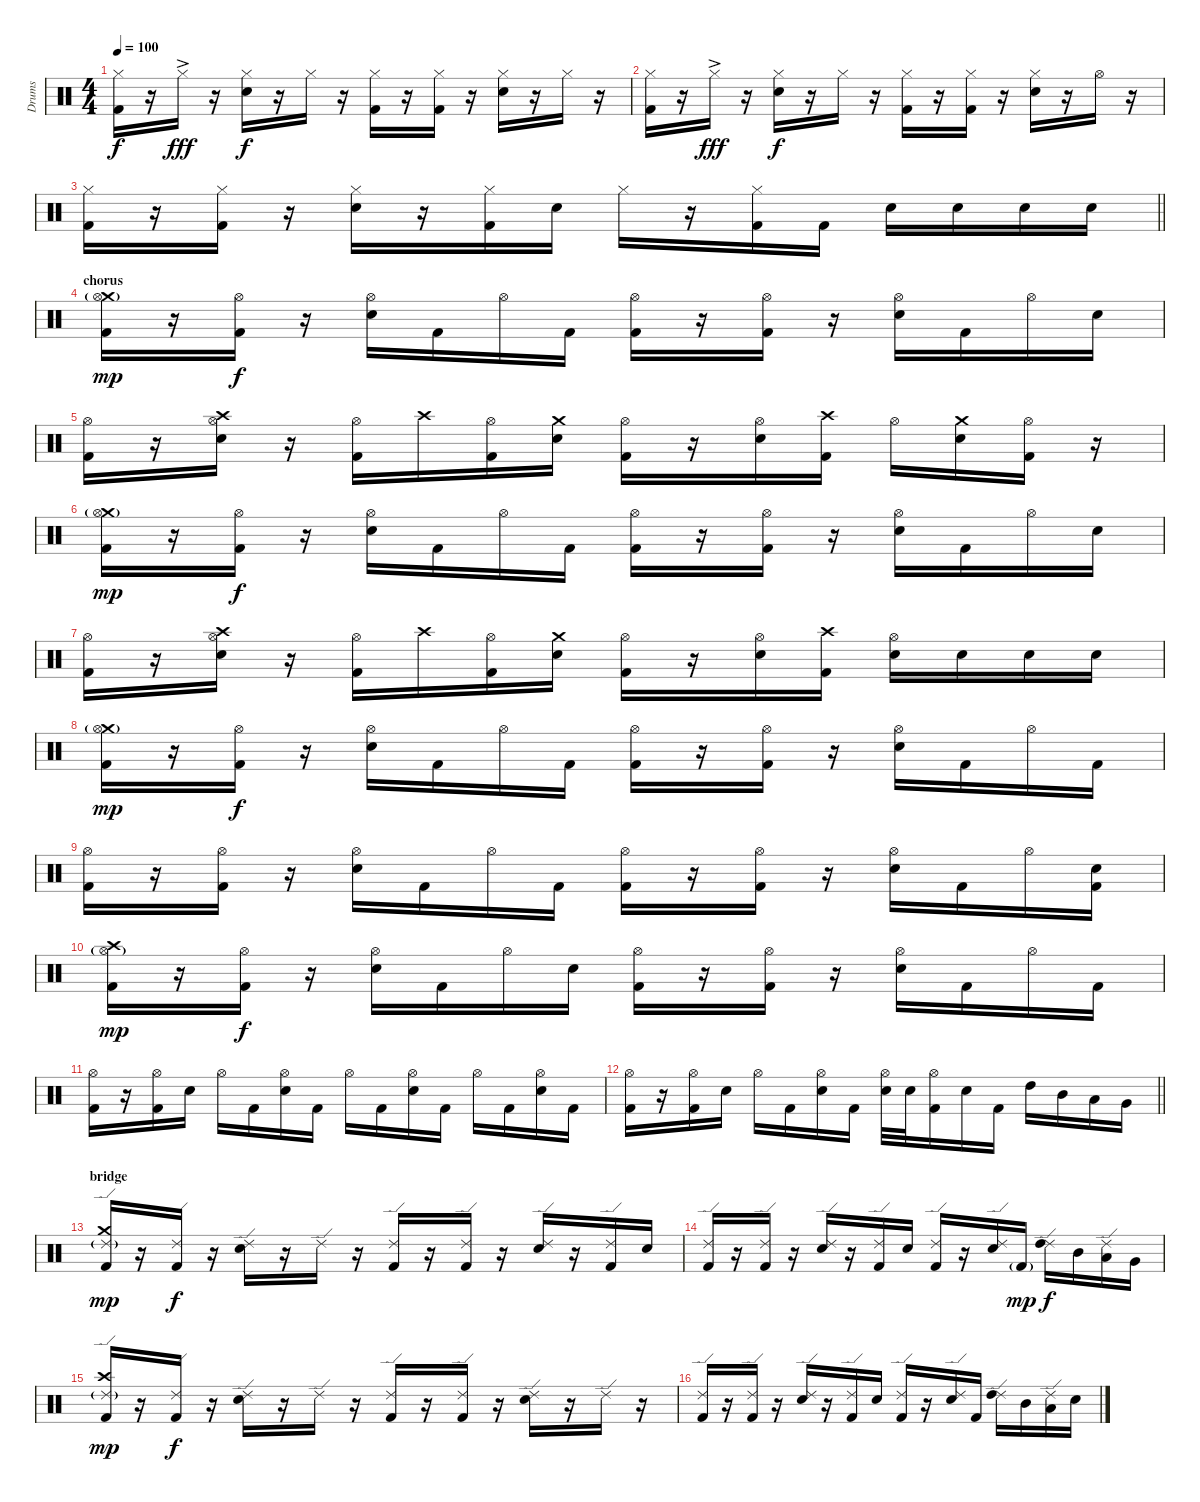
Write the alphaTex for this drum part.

\track ("Drums" "Drums") {instrument percussion}
\staff {score}
\articulation defaults
\ts (4 4)
\tempo 100
\clef neutral
\ks c
("Hi-Hat (closed)" "Kick (hit) 2").16{dy f} r.16 "Hi-Hat (closed)"{ac}.16{dy fff} r.16 ("Hi-Hat (closed)" "Snare (hit) 2").16{dy f} r.16 "Hi-Hat (closed)".16 r.16 ("Hi-Hat (closed)" "Kick (hit) 2").16 r.16 ("Hi-Hat (closed)" "Kick (hit) 2").16 r.16 ("Hi-Hat (closed)" "Snare (hit) 2").16 r.16 "Hi-Hat (closed)".16 r.16 |
("Hi-Hat (closed)" "Kick (hit) 2").16 r.16 "Hi-Hat (closed)"{ac}.16{dy fff} r.16 ("Hi-Hat (closed)" "Snare (hit) 2").16{dy f} r.16 "Hi-Hat (closed)".16 r.16 ("Hi-Hat (closed)" "Kick (hit) 2").16 r.16 ("Hi-Hat (closed)" "Kick (hit) 2").16 r.16 ("Hi-Hat (closed)" "Snare (hit) 2").16 r.16 "Hi-Hat (open)".16 r.16 |
\barLineRight lightlight
("Hi-Hat (closed)" "Kick (hit) 2").16 r.16 ("Hi-Hat (closed)" "Kick (hit) 2").16 r.16 ("Hi-Hat (closed)" "Snare (hit) 2").16 r.16 ("Hi-Hat (closed)" "Kick (hit) 2").16 "Snare (hit) 2".16 "Hi-Hat (closed)".16 r.16 ("Hi-Hat (closed)" "Kick (hit) 2").16 "Kick (hit) 2".16 "Snare (hit) 2".16 "Snare (hit) 2".16 "Snare (hit) 2".16 "Snare (hit) 2".16 |
\section ("" "chorus")
("Crash medium (hit)" "Hi-Hat (open)"{g} "Kick (hit) 2").16{dy mp} r.16 ("Hi-Hat (open)" "Kick (hit) 2").16{dy f} r.16 ("Hi-Hat (open)" "Snare (hit) 2").16 "Kick (hit) 2".16 "Hi-Hat (open)".16 "Kick (hit) 2".16 ("Hi-Hat (open)" "Kick (hit) 2").16 r.16 ("Hi-Hat (open)" "Kick (hit) 2").16 r.16 ("Hi-Hat (open)" "Snare (hit) 2").16 "Kick (hit) 2".16 "Hi-Hat (open)".16 "Snare (hit) 2".16 |
("Hi-Hat (open)" "Kick (hit) 2").16 r.16 ("Crash high (hit)" "Hi-Hat (open)" "Snare (hit) 2").16 r.16 ("Hi-Hat (open)" "Kick (hit) 2").16 "Crash high (hit)".16 ("Hi-Hat (open)" "Kick (hit) 2").16 ("Crash medium (hit)" "Snare (hit) 2").16 ("Hi-Hat (open)" "Kick (hit) 2").16 r.16 ("Hi-Hat (open)" "Snare (hit) 2").16 ("Crash high (hit)" "Kick (hit) 2").16 "Hi-Hat (open)".16 ("Crash medium (hit)" "Snare (hit) 2").16 ("Hi-Hat (open)" "Kick (hit) 2").16 r.16 |
("Crash medium (hit)" "Hi-Hat (open)"{g} "Kick (hit) 2").16{dy mp} r.16 ("Hi-Hat (open)" "Kick (hit) 2").16{dy f} r.16 ("Hi-Hat (open)" "Snare (hit) 2").16 "Kick (hit) 2".16 "Hi-Hat (open)".16 "Kick (hit) 2".16 ("Hi-Hat (open)" "Kick (hit) 2").16 r.16 ("Hi-Hat (open)" "Kick (hit) 2").16 r.16 ("Hi-Hat (open)" "Snare (hit) 2").16 "Kick (hit) 2".16 "Hi-Hat (open)".16 "Snare (hit) 2".16 |
("Hi-Hat (open)" "Kick (hit) 2").16 r.16 ("Crash high (hit)" "Hi-Hat (open)" "Snare (hit) 2").16 r.16 ("Hi-Hat (open)" "Kick (hit) 2").16 "Crash high (hit)".16 ("Hi-Hat (open)" "Kick (hit) 2").16 ("Crash medium (hit)" "Snare (hit) 2").16 ("Hi-Hat (open)" "Kick (hit) 2").16 r.16 ("Hi-Hat (open)" "Snare (hit) 2").16 ("Crash high (hit)" "Kick (hit) 2").16 ("Hi-Hat (open)" "Snare (hit) 2").16 "Snare (hit) 2".16 "Snare (hit) 2".16 "Snare (hit) 2".16 |
("Crash medium (hit)" "Hi-Hat (open)"{g} "Kick (hit) 2").16{dy mp} r.16 ("Hi-Hat (open)" "Kick (hit) 2").16{dy f} r.16 ("Hi-Hat (open)" "Snare (hit) 2").16 "Kick (hit) 2".16 "Hi-Hat (open)".16 "Kick (hit) 2".16 ("Hi-Hat (open)" "Kick (hit) 2").16 r.16 ("Hi-Hat (open)" "Kick (hit) 2").16 r.16 ("Hi-Hat (open)" "Snare (hit) 2").16 "Kick (hit) 2".16 "Hi-Hat (open)".16 "Kick (hit) 2".16 |
("Hi-Hat (open)" "Kick (hit) 2").16 r.16 ("Hi-Hat (open)" "Kick (hit) 2").16 r.16 ("Hi-Hat (open)" "Snare (hit) 2").16 "Kick (hit) 2".16 "Hi-Hat (open)".16 "Kick (hit) 2".16 ("Hi-Hat (open)" "Kick (hit) 2").16 r.16 ("Hi-Hat (open)" "Kick (hit) 2").16 r.16 ("Hi-Hat (open)" "Snare (hit) 2").16 "Kick (hit) 2".16 "Hi-Hat (open)".16 ("Snare (hit) 2" "Kick (hit) 2").16 |
("Crash high (hit)" "Hi-Hat (open)"{g} "Kick (hit) 2").16{dy mp} r.16 ("Hi-Hat (open)" "Kick (hit) 2").16{dy f} r.16 ("Hi-Hat (open)" "Snare (hit) 2").16 "Kick (hit) 2".16 "Hi-Hat (open)".16 "Snare (hit) 2".16 ("Hi-Hat (open)" "Kick (hit) 2").16 r.16 ("Hi-Hat (open)" "Kick (hit) 2").16 r.16 ("Hi-Hat (open)" "Snare (hit) 2").16 "Kick (hit) 2".16 "Hi-Hat (open)".16 "Kick (hit) 2".16 |
("Hi-Hat (open)" "Kick (hit) 2").16 r.16 ("Hi-Hat (open)" "Kick (hit) 2").16 "Snare (hit) 2".16 "Hi-Hat (open)".16 "Kick (hit) 2".16 ("Hi-Hat (open)" "Snare (hit) 2").16 "Kick (hit) 2".16 "Hi-Hat (open)".16 "Kick (hit) 2".16 ("Hi-Hat (open)" "Snare (hit) 2").16 "Kick (hit) 2".16 "Hi-Hat (open)".16 "Kick (hit) 2".16 ("Hi-Hat (open)" "Snare (hit) 2").16 "Kick (hit) 2".16 |
\barLineRight lightlight
("Hi-Hat (open)" "Kick (hit) 2").16 r.16 ("Hi-Hat (open)" "Kick (hit) 2").16 "Snare (hit) 2".16 "Hi-Hat (open)".16 "Kick (hit) 2".16 ("Hi-Hat (open)" "Snare (hit) 2").16 "Kick (hit) 2".16 ("Hi-Hat (open)" "Snare (hit) 2").32 "Snare (hit) 2".32 ("Hi-Hat (open)" "Kick (hit) 2").16 "Snare (hit) 2".16 "Kick (hit) 2".16 "High Tom (hit)".16 "Mid Tom (hit)".16 "Low Tom (hit)".16 "Very Low Tom (hit)".16 |
\section ("" "bridge")
("Crash medium (hit)" "Ride (edge) 2"{g} "Kick (hit) 2").16{dy mp} r.16 ("Ride (edge) 2" "Kick (hit) 2").16{dy f} r.16 ("Ride (edge) 2" "Snare (hit) 2").16 r.16 "Ride (edge) 2".16 r.16 ("Ride (edge) 2" "Kick (hit) 2").16 r.16 ("Ride (edge) 2" "Kick (hit) 2").16 r.16 ("Ride (edge) 2" "Snare (hit) 2").16 r.16 ("Ride (edge) 2" "Kick (hit) 2").16 "Snare (hit) 2".16 |
("Ride (edge) 2" "Kick (hit) 2").16 r.16 ("Ride (edge) 2" "Kick (hit) 2").16 r.16 ("Ride (edge) 2" "Snare (hit) 2").16 r.16 ("Ride (edge) 2" "Kick (hit) 2").16 "Snare (hit) 2".16 ("Ride (edge) 2" "Kick (hit) 2").16 r.16 ("Ride (edge) 2" "Snare (hit) 2").16 "Kick (hit) 2"{g}.16{dy mp} ("Ride (edge) 2" "High Tom (hit)").16{dy f} "Mid Tom (hit)".16 ("Ride (edge) 2" "Low Tom (hit)").16 "Very Low Tom (hit)".16 |
("Crash high (hit)" "Ride (edge) 2"{g} "Kick (hit) 2").16{dy mp} r.16 ("Ride (edge) 2" "Kick (hit) 2").16{dy f} r.16 ("Ride (edge) 2" "Snare (hit) 2").16 r.16 "Ride (edge) 2".16 r.16 ("Ride (edge) 2" "Kick (hit) 2").16 r.16 ("Ride (edge) 2" "Kick (hit) 2").16 r.16 ("Ride (edge) 2" "Snare (hit) 2").16 r.16 "Ride (edge) 2".16 r.16 |
("Ride (edge) 2" "Kick (hit) 2").16 r.16 ("Ride (edge) 2" "Kick (hit) 2").16 r.16 ("Ride (edge) 2" "Snare (hit) 2").16 r.16 ("Ride (edge) 2" "Kick (hit) 2").16 "Snare (hit) 2".16 ("Ride (edge) 2" "Kick (hit) 2").16 r.16 ("Ride (edge) 2" "Snare (hit) 2").16 "Kick (hit) 2".16 ("Ride (edge) 2" "High Tom (hit)").16 "Mid Tom (hit)".16 ("Ride (edge) 2" "Low Tom (hit)").16 "Snare (hit) 2".16
